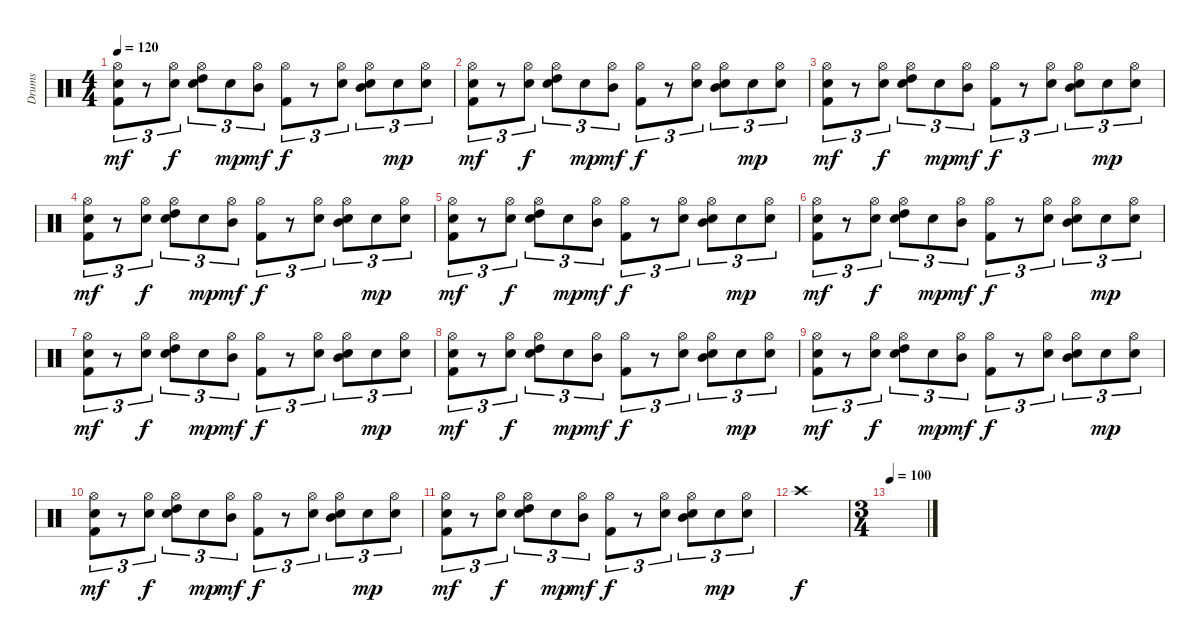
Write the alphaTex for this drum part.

\track ("Drums" "Drums") {instrument percussion}
\staff {score}
\articulation defaults
\ts (4 4)
\tempo 120
\clef neutral
\ks c
("Hi-Hat (open)" "Snare (hit) 2" "Kick (hit) 2").8{tu (3 2) dy mf} r.8{tu (3 2)} ("Hi-Hat (open)" "Snare (hit) 2").8{tu (3 2) dy f} ("Hi-Hat (open)" "High Tom (hit)" "Snare (hit) 2").8{tu (3 2)} "Snare (hit) 2".8{tu (3 2) dy mp} ("Hi-Hat (open)" "Mid Tom (hit)").8{tu (3 2) dy mf} ("Hi-Hat (open)" "Kick (hit) 2").8{tu (3 2) dy f} r.8{tu (3 2)} ("Hi-Hat (open)" "Snare (hit) 2").8{tu (3 2)} ("Hi-Hat (open)" "Mid Tom (hit)" "Snare (hit) 2").8{tu (3 2)} "Snare (hit) 2".8{tu (3 2) dy mp} ("Hi-Hat (open)" "Snare (hit) 2").8{tu (3 2)} |
("Hi-Hat (open)" "Snare (hit) 2" "Kick (hit) 2").8{tu (3 2) dy mf} r.8{tu (3 2)} ("Hi-Hat (open)" "Snare (hit) 2").8{tu (3 2) dy f} ("Hi-Hat (open)" "High Tom (hit)" "Snare (hit) 2").8{tu (3 2)} "Snare (hit) 2".8{tu (3 2) dy mp} ("Hi-Hat (open)" "Mid Tom (hit)").8{tu (3 2) dy mf} ("Hi-Hat (open)" "Kick (hit) 2").8{tu (3 2) dy f} r.8{tu (3 2)} ("Hi-Hat (open)" "Snare (hit) 2").8{tu (3 2)} ("Hi-Hat (open)" "Mid Tom (hit)" "Snare (hit) 2").8{tu (3 2)} "Snare (hit) 2".8{tu (3 2) dy mp} ("Hi-Hat (open)" "Snare (hit) 2").8{tu (3 2)} |
("Hi-Hat (open)" "Snare (hit) 2" "Kick (hit) 2").8{tu (3 2) dy mf} r.8{tu (3 2)} ("Hi-Hat (open)" "Snare (hit) 2").8{tu (3 2) dy f} ("Hi-Hat (open)" "High Tom (hit)" "Snare (hit) 2").8{tu (3 2)} "Snare (hit) 2".8{tu (3 2) dy mp} ("Hi-Hat (open)" "Mid Tom (hit)").8{tu (3 2) dy mf} ("Hi-Hat (open)" "Kick (hit) 2").8{tu (3 2) dy f} r.8{tu (3 2)} ("Hi-Hat (open)" "Snare (hit) 2").8{tu (3 2)} ("Hi-Hat (open)" "Mid Tom (hit)" "Snare (hit) 2").8{tu (3 2)} "Snare (hit) 2".8{tu (3 2) dy mp} ("Hi-Hat (open)" "Snare (hit) 2").8{tu (3 2)} |
("Hi-Hat (open)" "Snare (hit) 2" "Kick (hit) 2").8{tu (3 2) dy mf} r.8{tu (3 2)} ("Hi-Hat (open)" "Snare (hit) 2").8{tu (3 2) dy f} ("Hi-Hat (open)" "High Tom (hit)" "Snare (hit) 2").8{tu (3 2)} "Snare (hit) 2".8{tu (3 2) dy mp} ("Hi-Hat (open)" "Mid Tom (hit)").8{tu (3 2) dy mf} ("Hi-Hat (open)" "Kick (hit) 2").8{tu (3 2) dy f} r.8{tu (3 2)} ("Hi-Hat (open)" "Snare (hit) 2").8{tu (3 2)} ("Hi-Hat (open)" "Mid Tom (hit)" "Snare (hit) 2").8{tu (3 2)} "Snare (hit) 2".8{tu (3 2) dy mp} ("Hi-Hat (open)" "Snare (hit) 2").8{tu (3 2)} |
("Hi-Hat (open)" "Snare (hit) 2" "Kick (hit) 2").8{tu (3 2) dy mf} r.8{tu (3 2)} ("Hi-Hat (open)" "Snare (hit) 2").8{tu (3 2) dy f} ("Hi-Hat (open)" "High Tom (hit)" "Snare (hit) 2").8{tu (3 2)} "Snare (hit) 2".8{tu (3 2) dy mp} ("Hi-Hat (open)" "Mid Tom (hit)").8{tu (3 2) dy mf} ("Hi-Hat (open)" "Kick (hit) 2").8{tu (3 2) dy f} r.8{tu (3 2)} ("Hi-Hat (open)" "Snare (hit) 2").8{tu (3 2)} ("Hi-Hat (open)" "Mid Tom (hit)" "Snare (hit) 2").8{tu (3 2)} "Snare (hit) 2".8{tu (3 2) dy mp} ("Hi-Hat (open)" "Snare (hit) 2").8{tu (3 2)} |
("Hi-Hat (open)" "Snare (hit) 2" "Kick (hit) 2").8{tu (3 2) dy mf} r.8{tu (3 2)} ("Hi-Hat (open)" "Snare (hit) 2").8{tu (3 2) dy f} ("Hi-Hat (open)" "High Tom (hit)" "Snare (hit) 2").8{tu (3 2)} "Snare (hit) 2".8{tu (3 2) dy mp} ("Hi-Hat (open)" "Mid Tom (hit)").8{tu (3 2) dy mf} ("Hi-Hat (open)" "Kick (hit) 2").8{tu (3 2) dy f} r.8{tu (3 2)} ("Hi-Hat (open)" "Snare (hit) 2").8{tu (3 2)} ("Hi-Hat (open)" "Mid Tom (hit)" "Snare (hit) 2").8{tu (3 2)} "Snare (hit) 2".8{tu (3 2) dy mp} ("Hi-Hat (open)" "Snare (hit) 2").8{tu (3 2)} |
("Hi-Hat (open)" "Snare (hit) 2" "Kick (hit) 2").8{tu (3 2) dy mf} r.8{tu (3 2)} ("Hi-Hat (open)" "Snare (hit) 2").8{tu (3 2) dy f} ("Hi-Hat (open)" "High Tom (hit)" "Snare (hit) 2").8{tu (3 2)} "Snare (hit) 2".8{tu (3 2) dy mp} ("Hi-Hat (open)" "Mid Tom (hit)").8{tu (3 2) dy mf} ("Hi-Hat (open)" "Kick (hit) 2").8{tu (3 2) dy f} r.8{tu (3 2)} ("Hi-Hat (open)" "Snare (hit) 2").8{tu (3 2)} ("Hi-Hat (open)" "Mid Tom (hit)" "Snare (hit) 2").8{tu (3 2)} "Snare (hit) 2".8{tu (3 2) dy mp} ("Hi-Hat (open)" "Snare (hit) 2").8{tu (3 2)} |
("Hi-Hat (open)" "Snare (hit) 2" "Kick (hit) 2").8{tu (3 2) dy mf} r.8{tu (3 2)} ("Hi-Hat (open)" "Snare (hit) 2").8{tu (3 2) dy f} ("Hi-Hat (open)" "High Tom (hit)" "Snare (hit) 2").8{tu (3 2)} "Snare (hit) 2".8{tu (3 2) dy mp} ("Hi-Hat (open)" "Mid Tom (hit)").8{tu (3 2) dy mf} ("Hi-Hat (open)" "Kick (hit) 2").8{tu (3 2) dy f} r.8{tu (3 2)} ("Hi-Hat (open)" "Snare (hit) 2").8{tu (3 2)} ("Hi-Hat (open)" "Mid Tom (hit)" "Snare (hit) 2").8{tu (3 2)} "Snare (hit) 2".8{tu (3 2) dy mp} ("Hi-Hat (open)" "Snare (hit) 2").8{tu (3 2)} |
("Hi-Hat (open)" "Snare (hit) 2" "Kick (hit) 2").8{tu (3 2) dy mf} r.8{tu (3 2)} ("Hi-Hat (open)" "Snare (hit) 2").8{tu (3 2) dy f} ("Hi-Hat (open)" "High Tom (hit)" "Snare (hit) 2").8{tu (3 2)} "Snare (hit) 2".8{tu (3 2) dy mp} ("Hi-Hat (open)" "Mid Tom (hit)").8{tu (3 2) dy mf} ("Hi-Hat (open)" "Kick (hit) 2").8{tu (3 2) dy f} r.8{tu (3 2)} ("Hi-Hat (open)" "Snare (hit) 2").8{tu (3 2)} ("Hi-Hat (open)" "Mid Tom (hit)" "Snare (hit) 2").8{tu (3 2)} "Snare (hit) 2".8{tu (3 2) dy mp} ("Hi-Hat (open)" "Snare (hit) 2").8{tu (3 2)} |
("Hi-Hat (open)" "Snare (hit) 2" "Kick (hit) 2").8{tu (3 2) dy mf} r.8{tu (3 2)} ("Hi-Hat (open)" "Snare (hit) 2").8{tu (3 2) dy f} ("Hi-Hat (open)" "High Tom (hit)" "Snare (hit) 2").8{tu (3 2)} "Snare (hit) 2".8{tu (3 2) dy mp} ("Hi-Hat (open)" "Mid Tom (hit)").8{tu (3 2) dy mf} ("Hi-Hat (open)" "Kick (hit) 2").8{tu (3 2) dy f} r.8{tu (3 2)} ("Hi-Hat (open)" "Snare (hit) 2").8{tu (3 2)} ("Hi-Hat (open)" "Mid Tom (hit)" "Snare (hit) 2").8{tu (3 2)} "Snare (hit) 2".8{tu (3 2) dy mp} ("Hi-Hat (open)" "Snare (hit) 2").8{tu (3 2)} |
("Hi-Hat (open)" "Snare (hit) 2" "Kick (hit) 2").8{tu (3 2) dy mf} r.8{tu (3 2)} ("Hi-Hat (open)" "Snare (hit) 2").8{tu (3 2) dy f} ("Hi-Hat (open)" "High Tom (hit)" "Snare (hit) 2").8{tu (3 2)} "Snare (hit) 2".8{tu (3 2) dy mp} ("Hi-Hat (open)" "Mid Tom (hit)").8{tu (3 2) dy mf} ("Hi-Hat (open)" "Kick (hit) 2").8{tu (3 2) dy f} r.8{tu (3 2)} ("Hi-Hat (open)" "Snare (hit) 2").8{tu (3 2)} ("Hi-Hat (open)" "Mid Tom (hit)" "Snare (hit) 2").8{tu (3 2)} "Snare (hit) 2".8{tu (3 2) dy mp} ("Hi-Hat (open)" "Snare (hit) 2").8{tu (3 2)} |
"Crash high (hit)".1{dy f} |
\ts (3 4)
\tempo 100
